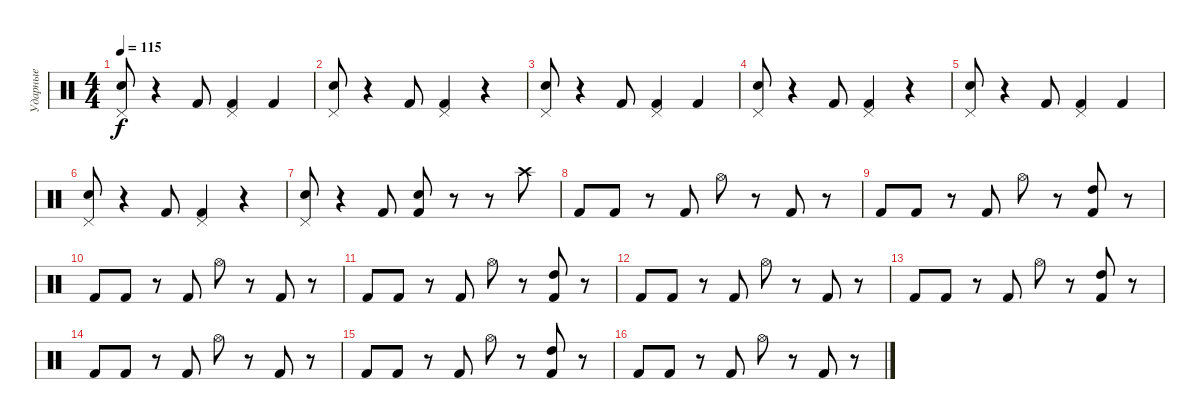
\track ("Ударные" "Ударные") {instrument percussion}
\staff {score}
\articulation defaults
\ts (4 4)
\tempo 115
\clef neutral
\ks c
("Snare (hit) 2" "Pedal Hi-Hat (hit)").8{dy f} r.4 "Kick (hit) 2".8 ("Kick (hit) 2" "Pedal Hi-Hat (hit)").4 "Kick (hit) 2".4 |
("Snare (hit) 2" "Pedal Hi-Hat (hit)").8 r.4 "Kick (hit) 2".8 ("Kick (hit) 2" "Pedal Hi-Hat (hit)").4 r.4 |
("Snare (hit) 2" "Pedal Hi-Hat (hit)").8 r.4 "Kick (hit) 2".8 ("Kick (hit) 2" "Pedal Hi-Hat (hit)").4 "Kick (hit) 2".4 |
("Snare (hit) 2" "Pedal Hi-Hat (hit)").8 r.4 "Kick (hit) 2".8 ("Kick (hit) 2" "Pedal Hi-Hat (hit)").4 r.4 |
("Snare (hit) 2" "Pedal Hi-Hat (hit)").8 r.4 "Kick (hit) 2".8 ("Kick (hit) 2" "Pedal Hi-Hat (hit)").4 "Kick (hit) 2".4 |
("Snare (hit) 2" "Pedal Hi-Hat (hit)").8 r.4 "Kick (hit) 2".8 ("Kick (hit) 2" "Pedal Hi-Hat (hit)").4 r.4 |
("Snare (hit) 2" "Pedal Hi-Hat (hit)").8 r.4 "Kick (hit) 2".8 ("Kick (hit) 2" "Snare (hit) 2").8 r.8 r.8 "Crash high (hit)".8 |
"Kick (hit) 2".8 "Kick (hit) 2".8 r.8 "Kick (hit) 2".8 "Hi-Hat (open)".8 r.8 "Kick (hit) 2".8 r.8 |
"Kick (hit) 2".8 "Kick (hit) 2".8 r.8 "Kick (hit) 2".8 "Hi-Hat (open)".8 r.8 ("Kick (hit) 2" "High Tom (hit)").8 r.8 |
"Kick (hit) 2".8 "Kick (hit) 2".8 r.8 "Kick (hit) 2".8 "Hi-Hat (open)".8 r.8 "Kick (hit) 2".8 r.8 |
"Kick (hit) 2".8 "Kick (hit) 2".8 r.8 "Kick (hit) 2".8 "Hi-Hat (open)".8 r.8 ("Kick (hit) 2" "High Tom (hit)").8 r.8 |
"Kick (hit) 2".8 "Kick (hit) 2".8 r.8 "Kick (hit) 2".8 "Hi-Hat (open)".8 r.8 "Kick (hit) 2".8 r.8 |
"Kick (hit) 2".8 "Kick (hit) 2".8 r.8 "Kick (hit) 2".8 "Hi-Hat (open)".8 r.8 ("Kick (hit) 2" "High Tom (hit)").8 r.8 |
"Kick (hit) 2".8 "Kick (hit) 2".8 r.8 "Kick (hit) 2".8 "Hi-Hat (open)".8 r.8 "Kick (hit) 2".8 r.8 |
"Kick (hit) 2".8 "Kick (hit) 2".8 r.8 "Kick (hit) 2".8 "Hi-Hat (open)".8 r.8 ("Kick (hit) 2" "High Tom (hit)").8 r.8 |
"Kick (hit) 2".8 "Kick (hit) 2".8 r.8 "Kick (hit) 2".8 "Hi-Hat (open)".8 r.8 "Kick (hit) 2".8 r.8
